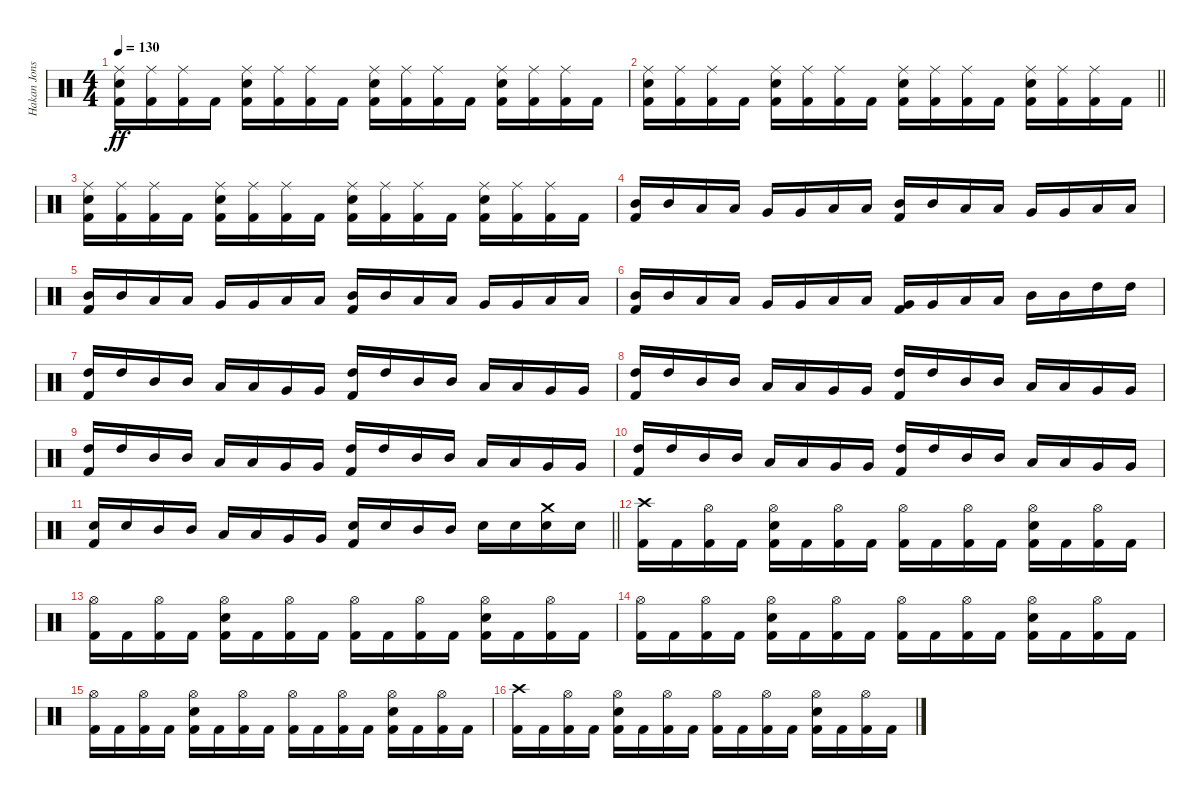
\track ("Hakan Jonsson" "Hakan Jons") {instrument percussion}
\staff {score}
\articulation defaults
\ts (4 4)
\tempo 130
\clef neutral
\ks c
("Ride (middle)" "Electric Snare (hit)" "Kick (hit) 2").16{dy ff} ("Ride (middle)" "Kick (hit) 2").16 ("Ride (middle)" "Kick (hit) 2").16 "Kick (hit) 2".16 ("Ride (middle)" "Electric Snare (hit)" "Kick (hit) 2").16 ("Ride (middle)" "Kick (hit) 2").16 ("Ride (middle)" "Kick (hit) 2").16 "Kick (hit) 2".16 ("Ride (middle)" "Electric Snare (hit)" "Kick (hit) 2").16 ("Ride (middle)" "Kick (hit) 2").16 ("Ride (middle)" "Kick (hit) 2").16 "Kick (hit) 2".16 ("Ride (middle)" "Electric Snare (hit)" "Kick (hit) 2").16 ("Ride (middle)" "Kick (hit) 2").16 ("Ride (middle)" "Kick (hit) 2").16 "Kick (hit) 2".16 |
\barLineRight lightlight
("Ride (middle)" "Electric Snare (hit)" "Kick (hit) 2").16 ("Ride (middle)" "Kick (hit) 2").16 ("Ride (middle)" "Kick (hit) 2").16 "Kick (hit) 2".16 ("Ride (middle)" "Electric Snare (hit)" "Kick (hit) 2").16 ("Ride (middle)" "Kick (hit) 2").16 ("Ride (middle)" "Kick (hit) 2").16 "Kick (hit) 2".16 ("Ride (middle)" "Electric Snare (hit)" "Kick (hit) 2").16 ("Ride (middle)" "Kick (hit) 2").16 ("Ride (middle)" "Kick (hit) 2").16 "Kick (hit) 2".16 ("Ride (middle)" "Electric Snare (hit)" "Kick (hit) 2").16 ("Ride (middle)" "Kick (hit) 2").16 ("Ride (middle)" "Kick (hit) 2").16 "Kick (hit) 2".16 |
("Ride (middle)" "Electric Snare (hit)" "Kick (hit) 2").16 ("Ride (middle)" "Kick (hit) 2").16 ("Ride (middle)" "Kick (hit) 2").16 "Kick (hit) 2".16 ("Ride (middle)" "Electric Snare (hit)" "Kick (hit) 2").16 ("Ride (middle)" "Kick (hit) 2").16 ("Ride (middle)" "Kick (hit) 2").16 "Kick (hit) 2".16 ("Ride (middle)" "Electric Snare (hit)" "Kick (hit) 2").16 ("Ride (middle)" "Kick (hit) 2").16 ("Ride (middle)" "Kick (hit) 2").16 "Kick (hit) 2".16 ("Ride (middle)" "Electric Snare (hit)" "Kick (hit) 2").16 ("Ride (middle)" "Kick (hit) 2").16 ("Ride (middle)" "Kick (hit) 2").16 "Kick (hit) 2".16 |
("Mid Tom (hit)" "Kick (hit) 2").16 "Mid Tom (hit)".16 "Low Tom (hit)".16 "Low Tom (hit)".16 "Very Low Tom (hit)".16 "Very Low Tom (hit)".16 "Low Floor Tom (hit)".16 "Low Floor Tom (hit)".16 ("Mid Tom (hit)" "Kick (hit) 2").16 "Mid Tom (hit)".16 "Low Tom (hit)".16 "Low Tom (hit)".16 "Very Low Tom (hit)".16 "Very Low Tom (hit)".16 "Low Floor Tom (hit)".16 "Low Floor Tom (hit)".16 |
("Mid Tom (hit)" "Kick (hit) 2").16 "Mid Tom (hit)".16 "Low Tom (hit)".16 "Low Tom (hit)".16 "Very Low Tom (hit)".16 "Very Low Tom (hit)".16 "Low Floor Tom (hit)".16 "Low Floor Tom (hit)".16 ("Mid Tom (hit)" "Kick (hit) 2").16 "Mid Tom (hit)".16 "Low Tom (hit)".16 "Low Tom (hit)".16 "Very Low Tom (hit)".16 "Very Low Tom (hit)".16 "Low Floor Tom (hit)".16 "Low Floor Tom (hit)".16 |
("Mid Tom (hit)" "Kick (hit) 2").16 "Mid Tom (hit)".16 "Low Tom (hit)".16 "Low Tom (hit)".16 "Very Low Tom (hit)".16 "Very Low Tom (hit)".16 "Low Floor Tom (hit)".16 "Low Floor Tom (hit)".16 ("Very Low Tom (hit)" "Kick (hit) 2").16 "Very Low Tom (hit)".16 "Low Tom (hit)".16 "Low Tom (hit)".16 "Mid Tom (hit)".16 "Mid Tom (hit)".16 "High Tom (hit)".16 "High Tom (hit)".16 |
("High Tom (hit)" "Kick (hit) 2").16 "High Tom (hit)".16 "Mid Tom (hit)".16 "Mid Tom (hit)".16 "Low Tom (hit)".16 "Low Tom (hit)".16 "Very Low Tom (hit)".16 "Very Low Tom (hit)".16 ("High Tom (hit)" "Kick (hit) 2").16 "High Tom (hit)".16 "Mid Tom (hit)".16 "Mid Tom (hit)".16 "Low Tom (hit)".16 "Low Tom (hit)".16 "Very Low Tom (hit)".16 "Very Low Tom (hit)".16 |
("High Tom (hit)" "Kick (hit) 2").16 "High Tom (hit)".16 "Mid Tom (hit)".16 "Mid Tom (hit)".16 "Low Tom (hit)".16 "Low Tom (hit)".16 "Very Low Tom (hit)".16 "Very Low Tom (hit)".16 ("High Tom (hit)" "Kick (hit) 2").16 "High Tom (hit)".16 "Mid Tom (hit)".16 "Mid Tom (hit)".16 "Low Tom (hit)".16 "Low Tom (hit)".16 "Very Low Tom (hit)".16 "Very Low Tom (hit)".16 |
("High Tom (hit)" "Kick (hit) 2").16 "High Tom (hit)".16 "Mid Tom (hit)".16 "Mid Tom (hit)".16 "Low Tom (hit)".16 "Low Tom (hit)".16 "Very Low Tom (hit)".16 "Very Low Tom (hit)".16 ("High Tom (hit)" "Kick (hit) 2").16 "High Tom (hit)".16 "Mid Tom (hit)".16 "Mid Tom (hit)".16 "Low Tom (hit)".16 "Low Tom (hit)".16 "Very Low Tom (hit)".16 "Very Low Tom (hit)".16 |
("High Tom (hit)" "Kick (hit) 2").16 "High Tom (hit)".16 "Mid Tom (hit)".16 "Mid Tom (hit)".16 "Low Tom (hit)".16 "Low Tom (hit)".16 "Very Low Tom (hit)".16 "Very Low Tom (hit)".16 ("High Tom (hit)" "Kick (hit) 2").16 "High Tom (hit)".16 "Mid Tom (hit)".16 "Mid Tom (hit)".16 "Low Tom (hit)".16 "Low Tom (hit)".16 "Very Low Tom (hit)".16 "Very Low Tom (hit)".16 |
\barLineRight lightlight
("Electric Snare (hit)" "Kick (hit) 2").16 "Electric Snare (hit)".16 "Mid Tom (hit)".16 "Mid Tom (hit)".16 "Low Tom (hit)".16 "Low Tom (hit)".16 "Very Low Tom (hit)".16 "Very Low Tom (hit)".16 ("Electric Snare (hit)" "Kick (hit) 2").16 "Electric Snare (hit)".16 "Mid Tom (hit)".16 "Mid Tom (hit)".16 "Electric Snare (hit)".16 "Electric Snare (hit)".16 ("Crash medium (hit)" "Electric Snare (hit)").16 "Electric Snare (hit)".16 |
("Crash high (hit)" "Kick (hit) 2").16 "Kick (hit) 2".16 ("Hi-Hat (open)" "Kick (hit) 2").16 "Kick (hit) 2".16 ("Hi-Hat (open)" "Electric Snare (hit)" "Kick (hit) 2").16 "Kick (hit) 2".16 ("Hi-Hat (open)" "Kick (hit) 2").16 "Kick (hit) 2".16 ("Hi-Hat (open)" "Kick (hit) 2").16 "Kick (hit) 2".16 ("Hi-Hat (open)" "Kick (hit) 2").16 "Kick (hit) 2".16 ("Hi-Hat (open)" "Electric Snare (hit)" "Kick (hit) 2").16 "Kick (hit) 2".16 ("Hi-Hat (open)" "Kick (hit) 2").16 "Kick (hit) 2".16 |
("Hi-Hat (open)" "Kick (hit) 2").16 "Kick (hit) 2".16 ("Hi-Hat (open)" "Kick (hit) 2").16 "Kick (hit) 2".16 ("Hi-Hat (open)" "Electric Snare (hit)" "Kick (hit) 2").16 "Kick (hit) 2".16 ("Hi-Hat (open)" "Kick (hit) 2").16 "Kick (hit) 2".16 ("Hi-Hat (open)" "Kick (hit) 2").16 "Kick (hit) 2".16 ("Hi-Hat (open)" "Kick (hit) 2").16 "Kick (hit) 2".16 ("Hi-Hat (open)" "Electric Snare (hit)" "Kick (hit) 2").16 "Kick (hit) 2".16 ("Hi-Hat (open)" "Kick (hit) 2").16 "Kick (hit) 2".16 |
("Hi-Hat (open)" "Kick (hit) 2").16 "Kick (hit) 2".16 ("Hi-Hat (open)" "Kick (hit) 2").16 "Kick (hit) 2".16 ("Hi-Hat (open)" "Electric Snare (hit)" "Kick (hit) 2").16 "Kick (hit) 2".16 ("Hi-Hat (open)" "Kick (hit) 2").16 "Kick (hit) 2".16 ("Hi-Hat (open)" "Kick (hit) 2").16 "Kick (hit) 2".16 ("Hi-Hat (open)" "Kick (hit) 2").16 "Kick (hit) 2".16 ("Hi-Hat (open)" "Electric Snare (hit)" "Kick (hit) 2").16 "Kick (hit) 2".16 ("Hi-Hat (open)" "Kick (hit) 2").16 "Kick (hit) 2".16 |
("Hi-Hat (open)" "Kick (hit) 2").16 "Kick (hit) 2".16 ("Hi-Hat (open)" "Kick (hit) 2").16 "Kick (hit) 2".16 ("Hi-Hat (open)" "Electric Snare (hit)" "Kick (hit) 2").16 "Kick (hit) 2".16 ("Hi-Hat (open)" "Kick (hit) 2").16 "Kick (hit) 2".16 ("Hi-Hat (open)" "Kick (hit) 2").16 "Kick (hit) 2".16 ("Hi-Hat (open)" "Kick (hit) 2").16 "Kick (hit) 2".16 ("Hi-Hat (open)" "Electric Snare (hit)" "Kick (hit) 2").16 "Kick (hit) 2".16 ("Hi-Hat (open)" "Kick (hit) 2").16 "Kick (hit) 2".16 |
("Crash high (hit)" "Kick (hit) 2").16 "Kick (hit) 2".16 ("Hi-Hat (open)" "Kick (hit) 2").16 "Kick (hit) 2".16 ("Hi-Hat (open)" "Electric Snare (hit)" "Kick (hit) 2").16 "Kick (hit) 2".16 ("Hi-Hat (open)" "Kick (hit) 2").16 "Kick (hit) 2".16 ("Hi-Hat (open)" "Kick (hit) 2").16 "Kick (hit) 2".16 ("Hi-Hat (open)" "Kick (hit) 2").16 "Kick (hit) 2".16 ("Hi-Hat (open)" "Electric Snare (hit)" "Kick (hit) 2").16 "Kick (hit) 2".16 ("Hi-Hat (open)" "Kick (hit) 2").16 "Kick (hit) 2".16
